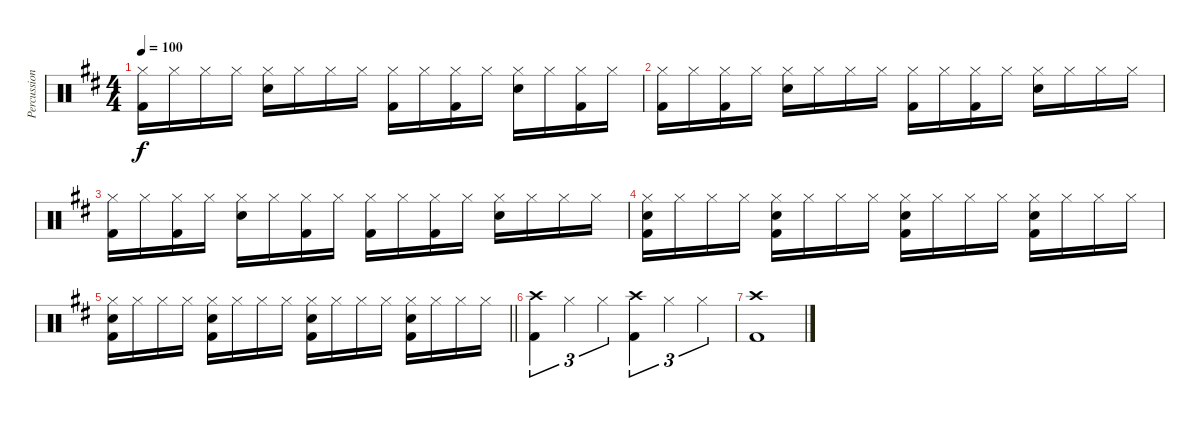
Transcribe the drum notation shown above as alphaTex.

\track ("Percussion" "Percussion") {instrument percussion}
\staff {score}
\articulation defaults
\ts (4 4)
\tempo 100
\clef neutral
\ks d
("Hi-Hat (closed)" "Kick (hit) 2").16{dy f} "Hi-Hat (closed)".16 "Hi-Hat (closed)".16 "Hi-Hat (closed)".16 ("Hi-Hat (closed)" "Snare (hit) 2").16 "Hi-Hat (closed)".16 "Hi-Hat (closed)".16 "Hi-Hat (closed)".16 ("Hi-Hat (closed)" "Kick (hit) 2").16 "Hi-Hat (closed)".16 ("Hi-Hat (closed)" "Kick (hit) 2").16 "Hi-Hat (closed)".16 ("Hi-Hat (closed)" "Snare (hit) 2").16 "Hi-Hat (closed)".16 ("Hi-Hat (closed)" "Kick (hit) 2").16 "Hi-Hat (closed)".16 |
("Hi-Hat (closed)" "Kick (hit) 2").16 "Hi-Hat (closed)".16 ("Hi-Hat (closed)" "Kick (hit) 2").16 "Hi-Hat (closed)".16 ("Hi-Hat (closed)" "Snare (hit) 2").16 "Hi-Hat (closed)".16 "Hi-Hat (closed)".16 "Hi-Hat (closed)".16 ("Hi-Hat (closed)" "Kick (hit) 2").16 "Hi-Hat (closed)".16 ("Hi-Hat (closed)" "Kick (hit) 2").16 "Hi-Hat (closed)".16 ("Hi-Hat (closed)" "Snare (hit) 2").16 "Hi-Hat (closed)".16 "Hi-Hat (closed)".16 "Hi-Hat (closed)".16 |
("Hi-Hat (closed)" "Kick (hit) 2").16 "Hi-Hat (closed)".16 ("Hi-Hat (closed)" "Kick (hit) 2").16 "Hi-Hat (closed)".16 ("Hi-Hat (closed)" "Snare (hit) 2").16 "Hi-Hat (closed)".16 ("Hi-Hat (closed)" "Kick (hit) 2").16 "Hi-Hat (closed)".16 ("Hi-Hat (closed)" "Kick (hit) 2").16 "Hi-Hat (closed)".16 ("Hi-Hat (closed)" "Kick (hit) 2").16 "Hi-Hat (closed)".16 ("Hi-Hat (closed)" "Snare (hit) 2").16 "Hi-Hat (closed)".16 "Hi-Hat (closed)".16 "Hi-Hat (closed)".16 |
("Hi-Hat (closed)" "Snare (hit) 2" "Kick (hit) 2").16 "Hi-Hat (closed)".16 "Hi-Hat (closed)".16 "Hi-Hat (closed)".16 ("Hi-Hat (closed)" "Kick (hit) 2" "Snare (hit) 2").16 "Hi-Hat (closed)".16 "Hi-Hat (closed)".16 "Hi-Hat (closed)".16 ("Hi-Hat (closed)" "Snare (hit) 2" "Kick (hit) 2").16 "Hi-Hat (closed)".16 "Hi-Hat (closed)".16 "Hi-Hat (closed)".16 ("Hi-Hat (closed)" "Snare (hit) 2" "Kick (hit) 2").16 "Hi-Hat (closed)".16 "Hi-Hat (closed)".16 "Hi-Hat (closed)".16 |
\barLineRight lightlight
("Hi-Hat (closed)" "Snare (hit) 2" "Kick (hit) 2").16 "Hi-Hat (closed)".16 "Hi-Hat (closed)".16 "Hi-Hat (closed)".16 ("Hi-Hat (closed)" "Kick (hit) 2" "Snare (hit) 2").16 "Hi-Hat (closed)".16 "Hi-Hat (closed)".16 "Hi-Hat (closed)".16 ("Hi-Hat (closed)" "Snare (hit) 2" "Kick (hit) 2").16 "Hi-Hat (closed)".16 "Hi-Hat (closed)".16 "Hi-Hat (closed)".16 ("Hi-Hat (closed)" "Snare (hit) 2" "Kick (hit) 2").16 "Hi-Hat (closed)".16 "Hi-Hat (closed)".16 "Hi-Hat (closed)".16 |
("Crash high (hit)" "Kick (hit) 2").4{tu (3 2)} "Hi-Hat (closed)".4{tu (3 2)} "Hi-Hat (closed)".4{tu (3 2)} ("Crash high (hit)" "Kick (hit) 2").4{tu (3 2)} "Hi-Hat (closed)".4{tu (3 2)} "Hi-Hat (closed)".4{tu (3 2)} |
("Crash high (hit)" "Kick (hit) 2").1
